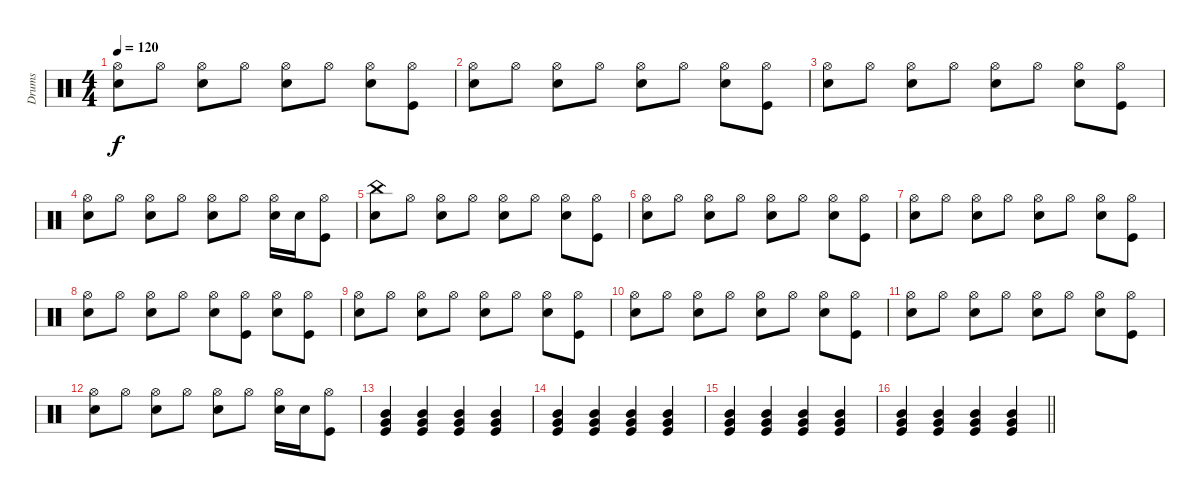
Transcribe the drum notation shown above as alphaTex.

\track ("Drums" "Drums") {instrument percussion}
\staff {score}
\articulation defaults
\ts (4 4)
\tempo 120
\clef neutral
\ks c
("Snare (hit) 2" "Hi-Hat (open)").8{dy f} "Hi-Hat (open)".8 ("Snare (hit) 2" "Hi-Hat (open)").8 "Hi-Hat (open)".8 ("Snare (hit) 2" "Hi-Hat (open)").8 "Hi-Hat (open)".8 ("Snare (hit) 2" "Hi-Hat (open)").8 ("Kick (hit)" "Hi-Hat (open)").8 |
("Snare (hit) 2" "Hi-Hat (open)").8 "Hi-Hat (open)".8 ("Snare (hit) 2" "Hi-Hat (open)").8 "Hi-Hat (open)".8 ("Snare (hit) 2" "Hi-Hat (open)").8 "Hi-Hat (open)".8 ("Snare (hit) 2" "Hi-Hat (open)").8 ("Kick (hit)" "Hi-Hat (open)").8 |
("Snare (hit) 2" "Hi-Hat (open)").8 "Hi-Hat (open)".8 ("Snare (hit) 2" "Hi-Hat (open)").8 "Hi-Hat (open)".8 ("Snare (hit) 2" "Hi-Hat (open)").8 "Hi-Hat (open)".8 ("Snare (hit) 2" "Hi-Hat (open)").8 ("Kick (hit)" "Hi-Hat (open)").8 |
("Snare (hit) 2" "Hi-Hat (open)").8 "Hi-Hat (open)".8 ("Snare (hit) 2" "Hi-Hat (open)").8 "Hi-Hat (open)".8 ("Snare (hit) 2" "Hi-Hat (open)").8 "Hi-Hat (open)".8 ("Snare (hit) 2" "Hi-Hat (open)").16 "Snare (hit) 2".16 ("Kick (hit)" "Hi-Hat (open)").8 |
("Snare (hit) 2" "China (hit)").8 "Hi-Hat (open)".8 ("Snare (hit) 2" "Hi-Hat (open)").8 "Hi-Hat (open)".8 ("Snare (hit) 2" "Hi-Hat (open)").8 "Hi-Hat (open)".8 ("Snare (hit) 2" "Hi-Hat (open)").8 ("Kick (hit)" "Hi-Hat (open)").8 |
("Snare (hit) 2" "Hi-Hat (open)").8 "Hi-Hat (open)".8 ("Snare (hit) 2" "Hi-Hat (open)").8 "Hi-Hat (open)".8 ("Snare (hit) 2" "Hi-Hat (open)").8 "Hi-Hat (open)".8 ("Snare (hit) 2" "Hi-Hat (open)").8 ("Kick (hit)" "Hi-Hat (open)").8 |
("Snare (hit) 2" "Hi-Hat (open)").8 "Hi-Hat (open)".8 ("Snare (hit) 2" "Hi-Hat (open)").8 "Hi-Hat (open)".8 ("Snare (hit) 2" "Hi-Hat (open)").8 "Hi-Hat (open)".8 ("Snare (hit) 2" "Hi-Hat (open)").8 ("Kick (hit)" "Hi-Hat (open)").8 |
("Snare (hit) 2" "Hi-Hat (open)").8 "Hi-Hat (open)".8 ("Snare (hit) 2" "Hi-Hat (open)").8 "Hi-Hat (open)".8 ("Snare (hit) 2" "Hi-Hat (open)").8 ("Kick (hit)" "Hi-Hat (open)").8 ("Snare (hit) 2" "Hi-Hat (open)").8 ("Kick (hit)" "Hi-Hat (open)").8 |
("Snare (hit) 2" "Hi-Hat (open)").8 "Hi-Hat (open)".8 ("Snare (hit) 2" "Hi-Hat (open)").8 "Hi-Hat (open)".8 ("Snare (hit) 2" "Hi-Hat (open)").8 "Hi-Hat (open)".8 ("Snare (hit) 2" "Hi-Hat (open)").8 ("Kick (hit)" "Hi-Hat (open)").8 |
("Snare (hit) 2" "Hi-Hat (open)").8 "Hi-Hat (open)".8 ("Snare (hit) 2" "Hi-Hat (open)").8 "Hi-Hat (open)".8 ("Snare (hit) 2" "Hi-Hat (open)").8 "Hi-Hat (open)".8 ("Snare (hit) 2" "Hi-Hat (open)").8 ("Kick (hit)" "Hi-Hat (open)").8 |
("Snare (hit) 2" "Hi-Hat (open)").8 "Hi-Hat (open)".8 ("Snare (hit) 2" "Hi-Hat (open)").8 "Hi-Hat (open)".8 ("Snare (hit) 2" "Hi-Hat (open)").8 "Hi-Hat (open)".8 ("Snare (hit) 2" "Hi-Hat (open)").8 ("Kick (hit)" "Hi-Hat (open)").8 |
("Snare (hit) 2" "Hi-Hat (open)").8 "Hi-Hat (open)".8 ("Snare (hit) 2" "Hi-Hat (open)").8 "Hi-Hat (open)".8 ("Snare (hit) 2" "Hi-Hat (open)").8 "Hi-Hat (open)".8 ("Snare (hit) 2" "Hi-Hat (open)").16 "Snare (hit) 2".16 ("Kick (hit)" "Hi-Hat (open)").8 |
("Very Low Tom (hit)" "Kick (hit)" "Mid Tom (hit)").4 ("Very Low Tom (hit)" "Kick (hit)" "Mid Tom (hit)").4 ("Very Low Tom (hit)" "Kick (hit)" "Mid Tom (hit)").4 ("Very Low Tom (hit)" "Kick (hit)" "Mid Tom (hit)").4 |
("Very Low Tom (hit)" "Kick (hit)" "Mid Tom (hit)").4 ("Very Low Tom (hit)" "Kick (hit)" "Mid Tom (hit)").4 ("Very Low Tom (hit)" "Kick (hit)" "Mid Tom (hit)").4 ("Very Low Tom (hit)" "Kick (hit)" "Mid Tom (hit)").4 |
("Very Low Tom (hit)" "Kick (hit)" "Mid Tom (hit)").4 ("Very Low Tom (hit)" "Kick (hit)" "Mid Tom (hit)").4 ("Very Low Tom (hit)" "Kick (hit)" "Mid Tom (hit)").4 ("Very Low Tom (hit)" "Kick (hit)" "Mid Tom (hit)").4 |
\barLineRight lightlight
("Very Low Tom (hit)" "Kick (hit)" "Mid Tom (hit)").4 ("Very Low Tom (hit)" "Kick (hit)" "Mid Tom (hit)").4 ("Very Low Tom (hit)" "Kick (hit)" "Mid Tom (hit)").4 ("Very Low Tom (hit)" "Kick (hit)" "Mid Tom (hit)").4
